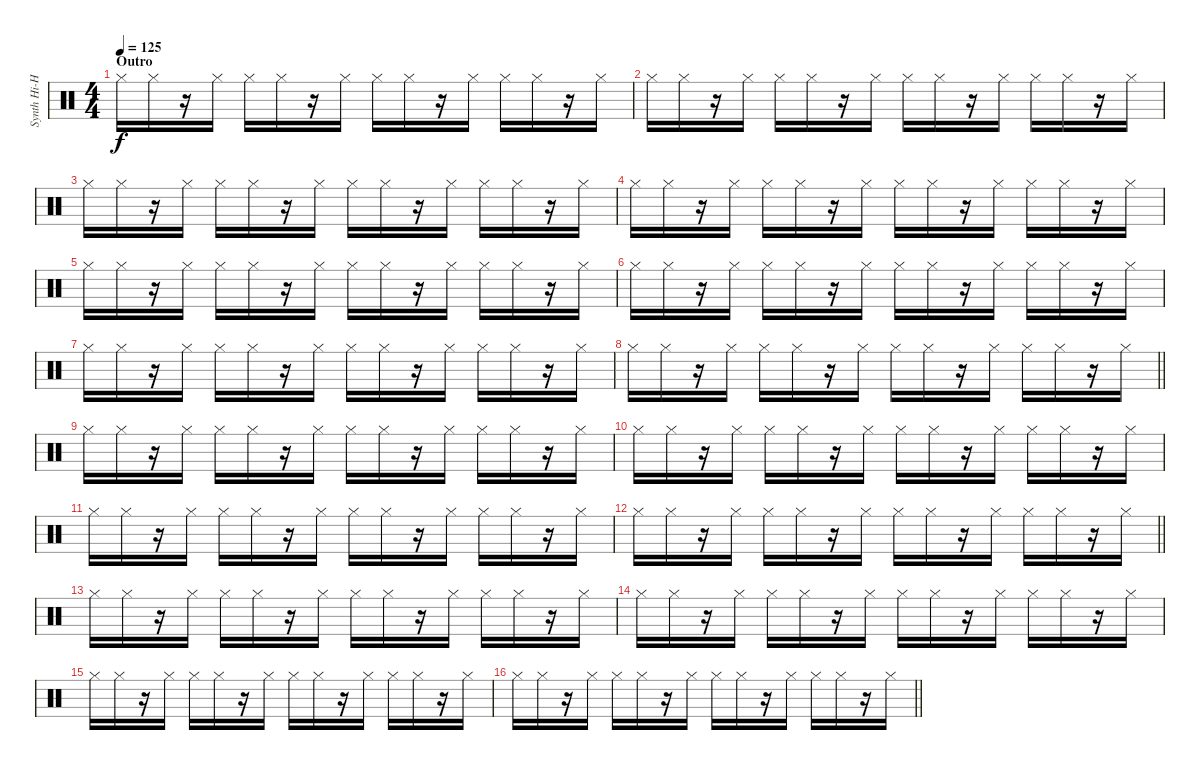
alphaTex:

\track ("Synth Hi-Hat (Gillian)" "Synth Hi-H") {instrument percussion}
\staff {score}
\articulation defaults
\ts (4 4)
\section ("" "Outro")
\tempo 125
\clef neutral
\ks c "Hi-Hat (closed)".16{dy f} "Hi-Hat (closed)".16
r.16 "Hi-Hat (closed)".16 "Hi-Hat (closed)".16 "Hi-Hat (closed)".16 r.16 "Hi-Hat (closed)".16 "Hi-Hat (closed)".16 "Hi-Hat (closed)".16 r.16 "Hi-Hat (closed)".16 "Hi-Hat (closed)".16 "Hi-Hat (closed)".16 r.16 "Hi-Hat (closed)".16 |
"Hi-Hat (closed)".16 "Hi-Hat (closed)".16 r.16 "Hi-Hat (closed)".16 "Hi-Hat (closed)".16 "Hi-Hat (closed)".16 r.16 "Hi-Hat (closed)".16 "Hi-Hat (closed)".16 "Hi-Hat (closed)".16 r.16 "Hi-Hat (closed)".16 "Hi-Hat (closed)".16 "Hi-Hat (closed)".16 r.16 "Hi-Hat (closed)".16 |
"Hi-Hat (closed)".16 "Hi-Hat (closed)".16 r.16 "Hi-Hat (closed)".16 "Hi-Hat (closed)".16 "Hi-Hat (closed)".16 r.16 "Hi-Hat (closed)".16 "Hi-Hat (closed)".16 "Hi-Hat (closed)".16 r.16 "Hi-Hat (closed)".16 "Hi-Hat (closed)".16 "Hi-Hat (closed)".16 r.16 "Hi-Hat (closed)".16 |
"Hi-Hat (closed)".16 "Hi-Hat (closed)".16 r.16 "Hi-Hat (closed)".16 "Hi-Hat (closed)".16 "Hi-Hat (closed)".16 r.16 "Hi-Hat (closed)".16 "Hi-Hat (closed)".16 "Hi-Hat (closed)".16 r.16 "Hi-Hat (closed)".16 "Hi-Hat (closed)".16 "Hi-Hat (closed)".16 r.16 "Hi-Hat (closed)".16 |
"Hi-Hat (closed)".16 "Hi-Hat (closed)".16 r.16 "Hi-Hat (closed)".16 "Hi-Hat (closed)".16 "Hi-Hat (closed)".16 r.16 "Hi-Hat (closed)".16 "Hi-Hat (closed)".16 "Hi-Hat (closed)".16 r.16 "Hi-Hat (closed)".16 "Hi-Hat (closed)".16 "Hi-Hat (closed)".16 r.16 "Hi-Hat (closed)".16 |
"Hi-Hat (closed)".16 "Hi-Hat (closed)".16 r.16 "Hi-Hat (closed)".16 "Hi-Hat (closed)".16 "Hi-Hat (closed)".16 r.16 "Hi-Hat (closed)".16 "Hi-Hat (closed)".16 "Hi-Hat (closed)".16 r.16 "Hi-Hat (closed)".16 "Hi-Hat (closed)".16 "Hi-Hat (closed)".16 r.16 "Hi-Hat (closed)".16 |
"Hi-Hat (closed)".16 "Hi-Hat (closed)".16 r.16 "Hi-Hat (closed)".16 "Hi-Hat (closed)".16 "Hi-Hat (closed)".16 r.16 "Hi-Hat (closed)".16 "Hi-Hat (closed)".16 "Hi-Hat (closed)".16 r.16 "Hi-Hat (closed)".16 "Hi-Hat (closed)".16 "Hi-Hat (closed)".16 r.16 "Hi-Hat (closed)".16 |
\barLineRight lightlight "Hi-Hat (closed)".16 "Hi-Hat (closed)".16
r.16 "Hi-Hat (closed)".16 "Hi-Hat (closed)".16 "Hi-Hat (closed)".16 r.16 "Hi-Hat (closed)".16 "Hi-Hat (closed)".16 "Hi-Hat (closed)".16 r.16 "Hi-Hat (closed)".16 "Hi-Hat (closed)".16 "Hi-Hat (closed)".16 r.16 "Hi-Hat (closed)".16 |
"Hi-Hat (closed)".16 "Hi-Hat (closed)".16 r.16 "Hi-Hat (closed)".16 "Hi-Hat (closed)".16 "Hi-Hat (closed)".16 r.16 "Hi-Hat (closed)".16 "Hi-Hat (closed)".16 "Hi-Hat (closed)".16 r.16 "Hi-Hat (closed)".16 "Hi-Hat (closed)".16 "Hi-Hat (closed)".16 r.16 "Hi-Hat (closed)".16 |
"Hi-Hat (closed)".16 "Hi-Hat (closed)".16 r.16 "Hi-Hat (closed)".16 "Hi-Hat (closed)".16 "Hi-Hat (closed)".16 r.16 "Hi-Hat (closed)".16 "Hi-Hat (closed)".16 "Hi-Hat (closed)".16 r.16 "Hi-Hat (closed)".16 "Hi-Hat (closed)".16 "Hi-Hat (closed)".16 r.16 "Hi-Hat (closed)".16 |
"Hi-Hat (closed)".16 "Hi-Hat (closed)".16 r.16 "Hi-Hat (closed)".16 "Hi-Hat (closed)".16 "Hi-Hat (closed)".16 r.16 "Hi-Hat (closed)".16 "Hi-Hat (closed)".16 "Hi-Hat (closed)".16 r.16 "Hi-Hat (closed)".16 "Hi-Hat (closed)".16 "Hi-Hat (closed)".16 r.16 "Hi-Hat (closed)".16 |
\barLineRight lightlight "Hi-Hat (closed)".16 "Hi-Hat (closed)".16
r.16 "Hi-Hat (closed)".16 "Hi-Hat (closed)".16 "Hi-Hat (closed)".16 r.16 "Hi-Hat (closed)".16 "Hi-Hat (closed)".16 "Hi-Hat (closed)".16 r.16 "Hi-Hat (closed)".16 "Hi-Hat (closed)".16 "Hi-Hat (closed)".16 r.16 "Hi-Hat (closed)".16 |
"Hi-Hat (closed)".16 "Hi-Hat (closed)".16 r.16 "Hi-Hat (closed)".16 "Hi-Hat (closed)".16 "Hi-Hat (closed)".16 r.16 "Hi-Hat (closed)".16 "Hi-Hat (closed)".16 "Hi-Hat (closed)".16 r.16 "Hi-Hat (closed)".16 "Hi-Hat (closed)".16 "Hi-Hat (closed)".16 r.16 "Hi-Hat (closed)".16 |
"Hi-Hat (closed)".16 "Hi-Hat (closed)".16 r.16 "Hi-Hat (closed)".16 "Hi-Hat (closed)".16 "Hi-Hat (closed)".16 r.16 "Hi-Hat (closed)".16 "Hi-Hat (closed)".16 "Hi-Hat (closed)".16 r.16 "Hi-Hat (closed)".16 "Hi-Hat (closed)".16 "Hi-Hat (closed)".16 r.16 "Hi-Hat (closed)".16 |
"Hi-Hat (closed)".16 "Hi-Hat (closed)".16 r.16 "Hi-Hat (closed)".16 "Hi-Hat (closed)".16 "Hi-Hat (closed)".16 r.16 "Hi-Hat (closed)".16 "Hi-Hat (closed)".16 "Hi-Hat (closed)".16 r.16 "Hi-Hat (closed)".16 "Hi-Hat (closed)".16 "Hi-Hat (closed)".16 r.16 "Hi-Hat (closed)".16 |
\barLineRight lightlight "Hi-Hat (closed)".16 "Hi-Hat (closed)".16
r.16 "Hi-Hat (closed)".16 "Hi-Hat (closed)".16 "Hi-Hat (closed)".16 r.16 "Hi-Hat (closed)".16 "Hi-Hat (closed)".16 "Hi-Hat (closed)".16 r.16 "Hi-Hat (closed)".16 "Hi-Hat (closed)".16 "Hi-Hat (closed)".16 r.16 "Hi-Hat (closed)".16
